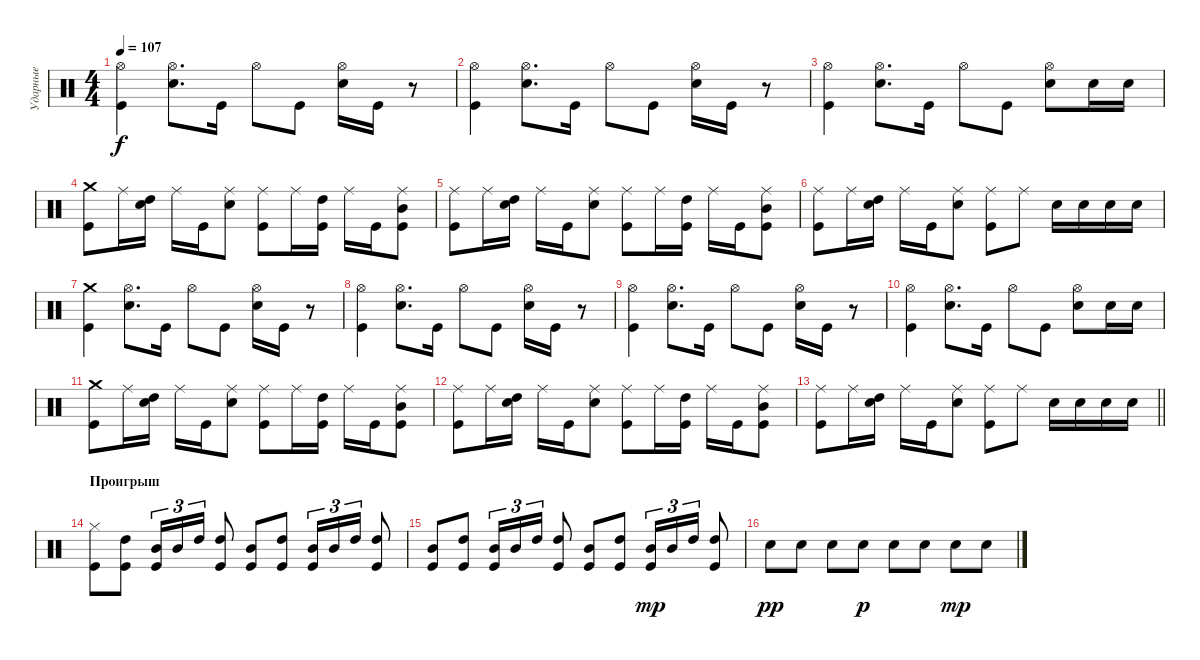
\track ("Ударные" "Ударные") {instrument percussion}
\staff {score}
\articulation defaults
\ts (4 4)
\tempo 107
\clef neutral
\ks c
("Kick (hit)" "Hi-Hat (open)").4{dy f} ("Snare (hit) 2" "Hi-Hat (open)").8{d} "Kick (hit)".16 "Hi-Hat (open)".8 "Kick (hit)".8 ("Snare (hit) 2" "Hi-Hat (open)").16 "Kick (hit)".16 r.8 |
("Kick (hit)" "Hi-Hat (open)").4 ("Snare (hit) 2" "Hi-Hat (open)").8{d} "Kick (hit)".16 "Hi-Hat (open)".8 "Kick (hit)".8 ("Snare (hit) 2" "Hi-Hat (open)").16 "Kick (hit)".16 r.8 |
("Kick (hit)" "Hi-Hat (open)").4 ("Snare (hit) 2" "Hi-Hat (open)").8{d} "Kick (hit)".16 "Hi-Hat (open)".8 "Kick (hit)".8 ("Snare (hit) 2" "Hi-Hat (open)").8 "Snare (hit) 2".16 "Snare (hit) 2".16 |
("Kick (hit)" "Crash medium (hit)").8 "Ride (middle)".16 ("Snare (hit) 2" "High Tom (hit)").16 "Ride (middle)".16 "Kick (hit)".16 ("Snare (hit) 2" "Ride (middle)").8 ("Kick (hit)" "Ride (middle)").8 "Ride (middle)".16 ("Kick (hit)" "High Tom (hit)").16 "Ride (middle)".16 "Kick (hit)".16 ("Kick (hit)" "Mid Tom (hit)" "Ride (middle)").8 |
("Kick (hit)" "Ride (middle)").8 "Ride (middle)".16 ("Snare (hit) 2" "High Tom (hit)").16 "Ride (middle)".16 "Kick (hit)".16 ("Snare (hit) 2" "Ride (middle)").8 ("Kick (hit)" "Ride (middle)").8 "Ride (middle)".16 ("Kick (hit)" "High Tom (hit)").16 "Ride (middle)".16 "Kick (hit)".16 ("Kick (hit)" "Mid Tom (hit)" "Ride (middle)").8 |
("Kick (hit)" "Ride (middle)").8 "Ride (middle)".16 ("Snare (hit) 2" "High Tom (hit)").16 "Ride (middle)".16 "Kick (hit)".16 ("Snare (hit) 2" "Ride (middle)").8 ("Kick (hit)" "Ride (middle)").8 "Ride (middle)".8 "Snare (hit) 2".16 "Snare (hit) 2".16 "Snare (hit) 2".16 "Snare (hit) 2".16 |
("Kick (hit)" "Crash medium (hit)").4 ("Snare (hit) 2" "Hi-Hat (open)").8{d} "Kick (hit)".16 "Hi-Hat (open)".8 "Kick (hit)".8 ("Snare (hit) 2" "Hi-Hat (open)").16 "Kick (hit)".16 r.8 |
("Kick (hit)" "Hi-Hat (open)").4 ("Snare (hit) 2" "Hi-Hat (open)").8{d} "Kick (hit)".16 "Hi-Hat (open)".8 "Kick (hit)".8 ("Snare (hit) 2" "Hi-Hat (open)").16 "Kick (hit)".16 r.8 |
("Kick (hit)" "Hi-Hat (open)").4 ("Snare (hit) 2" "Hi-Hat (open)").8{d} "Kick (hit)".16 "Hi-Hat (open)".8 "Kick (hit)".8 ("Snare (hit) 2" "Hi-Hat (open)").16 "Kick (hit)".16 r.8 |
("Kick (hit)" "Hi-Hat (open)").4 ("Snare (hit) 2" "Hi-Hat (open)").8{d} "Kick (hit)".16 "Hi-Hat (open)".8 "Kick (hit)".8 ("Snare (hit) 2" "Hi-Hat (open)").8 "Snare (hit) 2".16 "Snare (hit) 2".16 |
("Kick (hit)" "Crash medium (hit)").8 "Ride (middle)".16 ("Snare (hit) 2" "High Tom (hit)").16 "Ride (middle)".16 "Kick (hit)".16 ("Snare (hit) 2" "Ride (middle)").8 ("Kick (hit)" "Ride (middle)").8 "Ride (middle)".16 ("Kick (hit)" "High Tom (hit)").16 "Ride (middle)".16 "Kick (hit)".16 ("Kick (hit)" "Mid Tom (hit)" "Ride (middle)").8 |
("Kick (hit)" "Ride (middle)").8 "Ride (middle)".16 ("Snare (hit) 2" "High Tom (hit)").16 "Ride (middle)".16 "Kick (hit)".16 ("Snare (hit) 2" "Ride (middle)").8 ("Kick (hit)" "Ride (middle)").8 "Ride (middle)".16 ("Kick (hit)" "High Tom (hit)").16 "Ride (middle)".16 "Kick (hit)".16 ("Kick (hit)" "Mid Tom (hit)" "Ride (middle)").8 |
\barLineRight lightlight
("Kick (hit)" "Ride (middle)").8 "Ride (middle)".16 ("Snare (hit) 2" "High Tom (hit)").16 "Ride (middle)".16 "Kick (hit)".16 ("Snare (hit) 2" "Ride (middle)").8 ("Kick (hit)" "Ride (middle)").8 "Ride (middle)".8 "Snare (hit) 2".16 "Snare (hit) 2".16 "Snare (hit) 2".16 "Snare (hit) 2".16 |
\section ("" "Проигрыш")
("Kick (hit)" "Hi-Hat (closed)").8 ("Kick (hit)" "High Tom (hit)").8 ("Kick (hit)" "Mid Tom (hit)").16{tu (3 2)} "Mid Tom (hit)".16{tu (3 2)} "High Tom (hit)".16{tu (3 2)} ("Kick (hit)" "High Tom (hit)").8 ("Kick (hit)" "Mid Tom (hit)").8 ("Kick (hit)" "High Tom (hit)").8 ("Kick (hit)" "Mid Tom (hit)").16{tu (3 2)} "Mid Tom (hit)".16{tu (3 2)} "High Tom (hit)".16{tu (3 2)} ("Kick (hit)" "High Tom (hit)").8 |
("Kick (hit)" "Mid Tom (hit)").8 ("Kick (hit)" "High Tom (hit)").8 ("Kick (hit)" "Mid Tom (hit)").16{tu (3 2)} "Mid Tom (hit)".16{tu (3 2)} "High Tom (hit)".16{tu (3 2)} ("Kick (hit)" "High Tom (hit)").8 ("Kick (hit)" "Mid Tom (hit)").8 ("Kick (hit)" "High Tom (hit)").8 ("Kick (hit)" "Mid Tom (hit)").16{tu (3 2) dy mp} "Mid Tom (hit)".16{tu (3 2)} "High Tom (hit)".16{tu (3 2)} ("Kick (hit)" "High Tom (hit)").8 |
"Snare (hit) 2".8{dy pp} "Snare (hit) 2".8 "Snare (hit) 2".8 "Snare (hit) 2".8{dy p} "Snare (hit) 2".8 "Snare (hit) 2".8 "Snare (hit) 2".8{dy mp} "Snare (hit) 2".8
